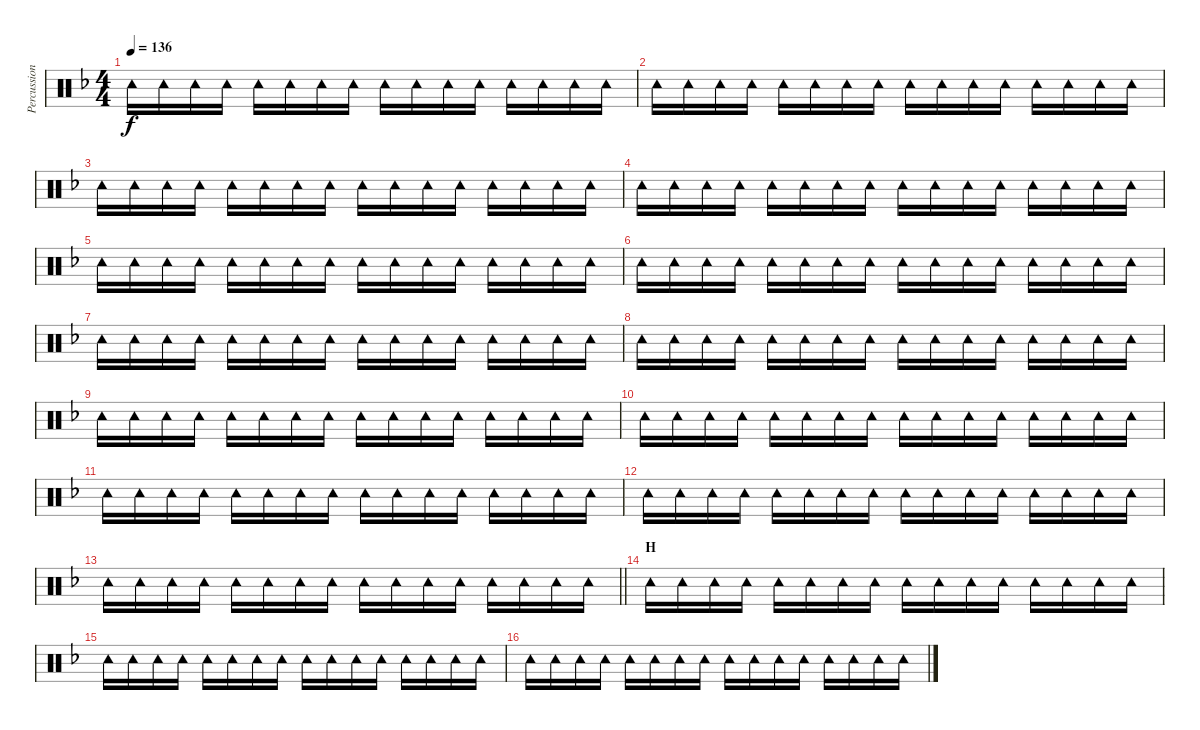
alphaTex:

\track ("Percussion" "Percussion") {instrument percussion}
\staff {score}
\articulation defaults
\ts (4 4)
\tempo 136
\clef neutral
\ks dminor "Tambourine (hit)".16{dy f} "Tambourine (hit)".16 "Tambourine (hit)".16 "Tambourine (hit)".16 "Tambourine (hit)".16 "Tambourine (hit)".16 "Tambourine (hit)".16 "Tambourine (hit)".16 "Tambourine (hit)".16 "Tambourine (hit)".16 "Tambourine (hit)".16 "Tambourine (hit)".16 "Tambourine (hit)".16 "Tambourine (hit)".16 "Tambourine (hit)".16 "Tambourine (hit)".16
|
"Tambourine (hit)".16 "Tambourine (hit)".16 "Tambourine (hit)".16 "Tambourine (hit)".16 "Tambourine (hit)".16 "Tambourine (hit)".16 "Tambourine (hit)".16 "Tambourine (hit)".16 "Tambourine (hit)".16 "Tambourine (hit)".16 "Tambourine (hit)".16 "Tambourine (hit)".16 "Tambourine (hit)".16 "Tambourine (hit)".16 "Tambourine (hit)".16 "Tambourine (hit)".16 |
"Tambourine (hit)".16 "Tambourine (hit)".16 "Tambourine (hit)".16 "Tambourine (hit)".16 "Tambourine (hit)".16 "Tambourine (hit)".16 "Tambourine (hit)".16 "Tambourine (hit)".16 "Tambourine (hit)".16 "Tambourine (hit)".16 "Tambourine (hit)".16 "Tambourine (hit)".16 "Tambourine (hit)".16 "Tambourine (hit)".16 "Tambourine (hit)".16 "Tambourine (hit)".16 |
"Tambourine (hit)".16 "Tambourine (hit)".16 "Tambourine (hit)".16 "Tambourine (hit)".16 "Tambourine (hit)".16 "Tambourine (hit)".16 "Tambourine (hit)".16 "Tambourine (hit)".16 "Tambourine (hit)".16 "Tambourine (hit)".16 "Tambourine (hit)".16 "Tambourine (hit)".16 "Tambourine (hit)".16 "Tambourine (hit)".16 "Tambourine (hit)".16 "Tambourine (hit)".16 |
"Tambourine (hit)".16 "Tambourine (hit)".16 "Tambourine (hit)".16 "Tambourine (hit)".16 "Tambourine (hit)".16 "Tambourine (hit)".16 "Tambourine (hit)".16 "Tambourine (hit)".16 "Tambourine (hit)".16 "Tambourine (hit)".16 "Tambourine (hit)".16 "Tambourine (hit)".16 "Tambourine (hit)".16 "Tambourine (hit)".16 "Tambourine (hit)".16 "Tambourine (hit)".16 |
"Tambourine (hit)".16 "Tambourine (hit)".16 "Tambourine (hit)".16 "Tambourine (hit)".16 "Tambourine (hit)".16 "Tambourine (hit)".16 "Tambourine (hit)".16 "Tambourine (hit)".16 "Tambourine (hit)".16 "Tambourine (hit)".16 "Tambourine (hit)".16 "Tambourine (hit)".16 "Tambourine (hit)".16 "Tambourine (hit)".16 "Tambourine (hit)".16 "Tambourine (hit)".16 |
"Tambourine (hit)".16 "Tambourine (hit)".16 "Tambourine (hit)".16 "Tambourine (hit)".16 "Tambourine (hit)".16 "Tambourine (hit)".16 "Tambourine (hit)".16 "Tambourine (hit)".16 "Tambourine (hit)".16 "Tambourine (hit)".16 "Tambourine (hit)".16 "Tambourine (hit)".16 "Tambourine (hit)".16 "Tambourine (hit)".16 "Tambourine (hit)".16 "Tambourine (hit)".16 |
"Tambourine (hit)".16 "Tambourine (hit)".16 "Tambourine (hit)".16 "Tambourine (hit)".16 "Tambourine (hit)".16 "Tambourine (hit)".16 "Tambourine (hit)".16 "Tambourine (hit)".16 "Tambourine (hit)".16 "Tambourine (hit)".16 "Tambourine (hit)".16 "Tambourine (hit)".16 "Tambourine (hit)".16 "Tambourine (hit)".16 "Tambourine (hit)".16 "Tambourine (hit)".16 |
"Tambourine (hit)".16 "Tambourine (hit)".16 "Tambourine (hit)".16 "Tambourine (hit)".16 "Tambourine (hit)".16 "Tambourine (hit)".16 "Tambourine (hit)".16 "Tambourine (hit)".16 "Tambourine (hit)".16 "Tambourine (hit)".16 "Tambourine (hit)".16 "Tambourine (hit)".16 "Tambourine (hit)".16 "Tambourine (hit)".16 "Tambourine (hit)".16 "Tambourine (hit)".16 |
"Tambourine (hit)".16 "Tambourine (hit)".16 "Tambourine (hit)".16 "Tambourine (hit)".16 "Tambourine (hit)".16 "Tambourine (hit)".16 "Tambourine (hit)".16 "Tambourine (hit)".16 "Tambourine (hit)".16 "Tambourine (hit)".16 "Tambourine (hit)".16 "Tambourine (hit)".16 "Tambourine (hit)".16 "Tambourine (hit)".16 "Tambourine (hit)".16 "Tambourine (hit)".16 |
"Tambourine (hit)".16 "Tambourine (hit)".16 "Tambourine (hit)".16 "Tambourine (hit)".16 "Tambourine (hit)".16 "Tambourine (hit)".16 "Tambourine (hit)".16 "Tambourine (hit)".16 "Tambourine (hit)".16 "Tambourine (hit)".16 "Tambourine (hit)".16 "Tambourine (hit)".16 "Tambourine (hit)".16 "Tambourine (hit)".16 "Tambourine (hit)".16 "Tambourine (hit)".16 |
"Tambourine (hit)".16 "Tambourine (hit)".16 "Tambourine (hit)".16 "Tambourine (hit)".16 "Tambourine (hit)".16 "Tambourine (hit)".16 "Tambourine (hit)".16 "Tambourine (hit)".16 "Tambourine (hit)".16 "Tambourine (hit)".16 "Tambourine (hit)".16 "Tambourine (hit)".16 "Tambourine (hit)".16 "Tambourine (hit)".16 "Tambourine (hit)".16 "Tambourine (hit)".16 |
\barLineRight lightlight "Tambourine (hit)".16 "Tambourine (hit)".16 "Tambourine (hit)".16 "Tambourine (hit)".16 "Tambourine (hit)".16 "Tambourine (hit)".16 "Tambourine (hit)".16 "Tambourine (hit)".16 "Tambourine (hit)".16 "Tambourine (hit)".16 "Tambourine (hit)".16 "Tambourine (hit)".16 "Tambourine (hit)".16 "Tambourine (hit)".16 "Tambourine (hit)".16 "Tambourine (hit)".16
|
\section ("" "H")
"Tambourine (hit)".16 "Tambourine (hit)".16 "Tambourine (hit)".16 "Tambourine (hit)".16 "Tambourine (hit)".16 "Tambourine (hit)".16 "Tambourine (hit)".16 "Tambourine (hit)".16 "Tambourine (hit)".16 "Tambourine (hit)".16 "Tambourine (hit)".16 "Tambourine (hit)".16 "Tambourine (hit)".16 "Tambourine (hit)".16 "Tambourine (hit)".16 "Tambourine (hit)".16 |
"Tambourine (hit)".16 "Tambourine (hit)".16 "Tambourine (hit)".16 "Tambourine (hit)".16 "Tambourine (hit)".16 "Tambourine (hit)".16 "Tambourine (hit)".16 "Tambourine (hit)".16 "Tambourine (hit)".16 "Tambourine (hit)".16 "Tambourine (hit)".16 "Tambourine (hit)".16 "Tambourine (hit)".16 "Tambourine (hit)".16 "Tambourine (hit)".16 "Tambourine (hit)".16 |
"Tambourine (hit)".16 "Tambourine (hit)".16 "Tambourine (hit)".16 "Tambourine (hit)".16 "Tambourine (hit)".16 "Tambourine (hit)".16 "Tambourine (hit)".16 "Tambourine (hit)".16 "Tambourine (hit)".16 "Tambourine (hit)".16 "Tambourine (hit)".16 "Tambourine (hit)".16 "Tambourine (hit)".16 "Tambourine (hit)".16 "Tambourine (hit)".16 "Tambourine (hit)".16
